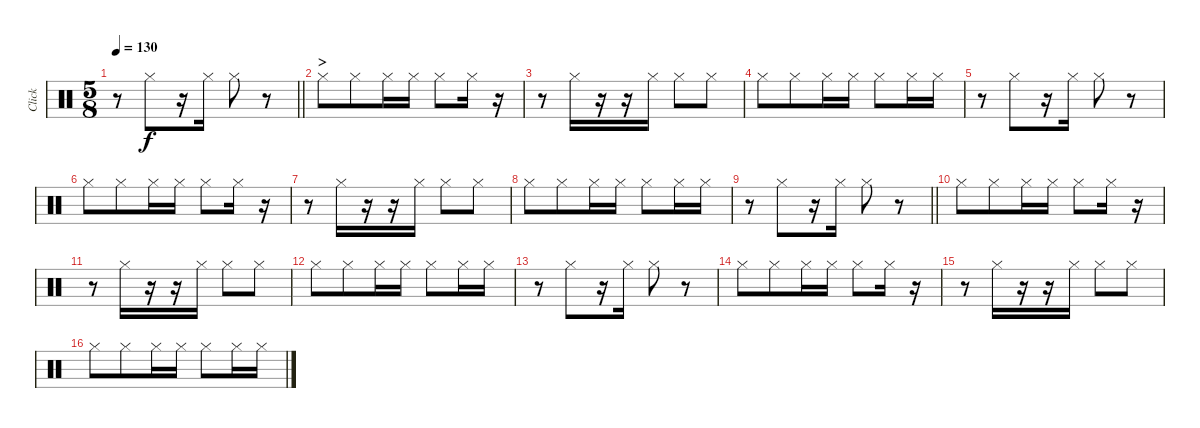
\track ("Click" "Click") {instrument percussion}
\staff {score}
\articulation defaults
\ts (5 8)
\tempo 130
\clef neutral
\barLineRight lightlight
\ks c
r.8{dy f} "Hi-Hat (closed)".8 r.16 "Hi-Hat (closed)".16 "Hi-Hat (closed)".8 r.8 |
\section ("" ">")
"Hi-Hat (closed)".8 "Hi-Hat (closed)".8 "Hi-Hat (closed)".16 "Hi-Hat (closed)".16 "Hi-Hat (closed)".8 "Hi-Hat (closed)".16 r.16 |
r.8 "Hi-Hat (closed)".16 r.16 r.16 "Hi-Hat (closed)".16 "Hi-Hat (closed)".8 "Hi-Hat (closed)".8 |
"Hi-Hat (closed)".8 "Hi-Hat (closed)".8 "Hi-Hat (closed)".16 "Hi-Hat (closed)".16 "Hi-Hat (closed)".8 "Hi-Hat (closed)".16 "Hi-Hat (closed)".16 |
r.8 "Hi-Hat (closed)".8 r.16 "Hi-Hat (closed)".16 "Hi-Hat (closed)".8 r.8 |
"Hi-Hat (closed)".8 "Hi-Hat (closed)".8 "Hi-Hat (closed)".16 "Hi-Hat (closed)".16 "Hi-Hat (closed)".8 "Hi-Hat (closed)".16 r.16 |
r.8 "Hi-Hat (closed)".16 r.16 r.16 "Hi-Hat (closed)".16 "Hi-Hat (closed)".8 "Hi-Hat (closed)".8 |
"Hi-Hat (closed)".8 "Hi-Hat (closed)".8 "Hi-Hat (closed)".16 "Hi-Hat (closed)".16 "Hi-Hat (closed)".8 "Hi-Hat (closed)".16 "Hi-Hat (closed)".16 |
\barLineRight lightlight
r.8 "Hi-Hat (closed)".8 r.16 "Hi-Hat (closed)".16 "Hi-Hat (closed)".8 r.8 |
"Hi-Hat (closed)".8 "Hi-Hat (closed)".8 "Hi-Hat (closed)".16 "Hi-Hat (closed)".16 "Hi-Hat (closed)".8 "Hi-Hat (closed)".16 r.16 |
r.8 "Hi-Hat (closed)".16 r.16 r.16 "Hi-Hat (closed)".16 "Hi-Hat (closed)".8 "Hi-Hat (closed)".8 |
"Hi-Hat (closed)".8 "Hi-Hat (closed)".8 "Hi-Hat (closed)".16 "Hi-Hat (closed)".16 "Hi-Hat (closed)".8 "Hi-Hat (closed)".16 "Hi-Hat (closed)".16 |
r.8 "Hi-Hat (closed)".8 r.16 "Hi-Hat (closed)".16 "Hi-Hat (closed)".8 r.8 |
"Hi-Hat (closed)".8 "Hi-Hat (closed)".8 "Hi-Hat (closed)".16 "Hi-Hat (closed)".16 "Hi-Hat (closed)".8 "Hi-Hat (closed)".16 r.16 |
r.8 "Hi-Hat (closed)".16 r.16 r.16 "Hi-Hat (closed)".16 "Hi-Hat (closed)".8 "Hi-Hat (closed)".8 |
"Hi-Hat (closed)".8 "Hi-Hat (closed)".8 "Hi-Hat (closed)".16 "Hi-Hat (closed)".16 "Hi-Hat (closed)".8 "Hi-Hat (closed)".16 "Hi-Hat (closed)".16
